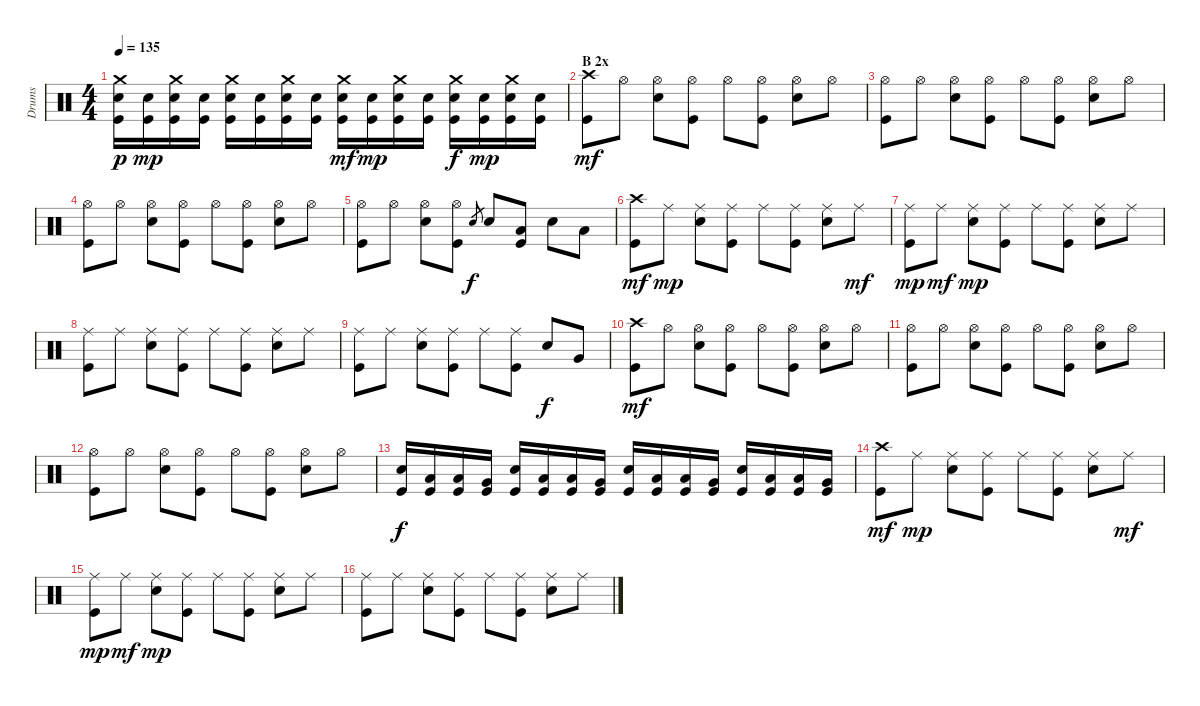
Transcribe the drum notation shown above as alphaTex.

\track ("Drums" "Drums") {instrument percussion}
\staff {score}
\articulation defaults
\ts (4 4)
\tempo 135
\clef neutral
\ks c
("Crash medium (hit)" "Electric Snare (hit)" "Kick (hit)").16{dy p} ("Electric Snare (hit)" "Kick (hit)").16{dy mp} ("Crash medium (hit)" "Electric Snare (hit)" "Kick (hit)").16 ("Electric Snare (hit)" "Kick (hit)").16 ("Crash medium (hit)" "Electric Snare (hit)" "Kick (hit)").16 ("Electric Snare (hit)" "Kick (hit)").16 ("Crash medium (hit)" "Electric Snare (hit)" "Kick (hit)").16 ("Electric Snare (hit)" "Kick (hit)").16 ("Crash medium (hit)" "Electric Snare (hit)" "Kick (hit)").16{dy mf} ("Electric Snare (hit)" "Kick (hit)").16{dy mp} ("Crash medium (hit)" "Electric Snare (hit)" "Kick (hit)").16 ("Electric Snare (hit)" "Kick (hit)").16 ("Crash medium (hit)" "Electric Snare (hit)" "Kick (hit)").16{dy f} ("Electric Snare (hit)" "Kick (hit)").16{dy mp} ("Crash medium (hit)" "Electric Snare (hit)" "Kick (hit)").16 ("Electric Snare (hit)" "Kick (hit)").16 |
\section ("" "B 2x")
("Crash high (hit)" "Kick (hit)").8{dy mf} "Hi-Hat (open)".8 ("Hi-Hat (open)" "Electric Snare (hit)").8 ("Hi-Hat (open)" "Kick (hit)").8 "Hi-Hat (open)".8 ("Hi-Hat (open)" "Kick (hit)").8 ("Hi-Hat (open)" "Electric Snare (hit)").8 "Hi-Hat (open)".8 |
("Hi-Hat (open)" "Kick (hit)").8 "Hi-Hat (open)".8 ("Hi-Hat (open)" "Electric Snare (hit)").8 ("Hi-Hat (open)" "Kick (hit)").8 "Hi-Hat (open)".8 ("Hi-Hat (open)" "Kick (hit)").8 ("Hi-Hat (open)" "Electric Snare (hit)").8 "Hi-Hat (open)".8 |
("Hi-Hat (open)" "Kick (hit)").8 "Hi-Hat (open)".8 ("Hi-Hat (open)" "Electric Snare (hit)").8 ("Hi-Hat (open)" "Kick (hit)").8 "Hi-Hat (open)".8 ("Hi-Hat (open)" "Kick (hit)").8 ("Hi-Hat (open)" "Electric Snare (hit)").8 "Hi-Hat (open)".8 |
("Hi-Hat (open)" "Kick (hit)").8 "Hi-Hat (open)".8 ("Hi-Hat (open)" "Electric Snare (hit)").8 ("Hi-Hat (open)" "Kick (hit)").8 "Electric Snare (hit)".8{gr dy f} "Electric Snare (hit)".8 ("Low Tom (hit)" "Kick (hit)").8 "Electric Snare (hit)".8 "Low Tom (hit)".8 |
("Crash high (hit)" "Kick (hit)").8{dy mf} "Ride (middle)".8{dy mp} ("Ride (middle)" "Electric Snare (hit)").8 ("Ride (middle)" "Kick (hit)").8 "Ride (middle)".8 ("Ride (middle)" "Kick (hit)").8 ("Ride (middle)" "Electric Snare (hit)").8 "Ride (middle)".8{dy mf} |
("Ride (middle)" "Kick (hit)").8{dy mp} "Ride (middle)".8{dy mf} ("Ride (middle)" "Electric Snare (hit)").8{dy mp} ("Ride (middle)" "Kick (hit)").8 "Ride (middle)".8 ("Ride (middle)" "Kick (hit)").8 ("Ride (middle)" "Electric Snare (hit)").8 "Ride (middle)".8 |
("Ride (middle)" "Kick (hit)").8 "Ride (middle)".8 ("Ride (middle)" "Electric Snare (hit)").8 ("Ride (middle)" "Kick (hit)").8 "Ride (middle)".8 ("Ride (middle)" "Kick (hit)").8 ("Ride (middle)" "Electric Snare (hit)").8 "Ride (middle)".8 |
("Ride (middle)" "Kick (hit)").8 "Ride (middle)".8 ("Ride (middle)" "Electric Snare (hit)").8 ("Ride (middle)" "Kick (hit)").8 "Ride (middle)".8 ("Ride (middle)" "Kick (hit)").8 "Electric Snare (hit)".8{dy f} "Very Low Tom (hit)".8 |
("Crash high (hit)" "Kick (hit)").8{dy mf} "Hi-Hat (open)".8 ("Hi-Hat (open)" "Electric Snare (hit)").8 ("Hi-Hat (open)" "Kick (hit)").8 "Hi-Hat (open)".8 ("Hi-Hat (open)" "Kick (hit)").8 ("Hi-Hat (open)" "Electric Snare (hit)").8 "Hi-Hat (open)".8 |
("Hi-Hat (open)" "Kick (hit)").8 "Hi-Hat (open)".8 ("Hi-Hat (open)" "Electric Snare (hit)").8 ("Hi-Hat (open)" "Kick (hit)").8 "Hi-Hat (open)".8 ("Hi-Hat (open)" "Kick (hit)").8 ("Hi-Hat (open)" "Electric Snare (hit)").8 "Hi-Hat (open)".8 |
("Hi-Hat (open)" "Kick (hit)").8 "Hi-Hat (open)".8 ("Hi-Hat (open)" "Electric Snare (hit)").8 ("Hi-Hat (open)" "Kick (hit)").8 "Hi-Hat (open)".8 ("Hi-Hat (open)" "Kick (hit)").8 ("Hi-Hat (open)" "Electric Snare (hit)").8 "Hi-Hat (open)".8 |
("Electric Snare (hit)" "Kick (hit)").16{dy f} ("Low Tom (hit)" "Kick (hit)").16 ("Low Tom (hit)" "Kick (hit)").16 ("Very Low Tom (hit)" "Kick (hit)").16 ("Electric Snare (hit)" "Kick (hit)").16 ("Low Tom (hit)" "Kick (hit)").16 ("Low Tom (hit)" "Kick (hit)").16 ("Very Low Tom (hit)" "Kick (hit)").16 ("Electric Snare (hit)" "Kick (hit)").16 ("Low Tom (hit)" "Kick (hit)").16 ("Low Tom (hit)" "Kick (hit)").16 ("Very Low Tom (hit)" "Kick (hit)").16 ("Electric Snare (hit)" "Kick (hit)").16 ("Low Tom (hit)" "Kick (hit)").16 ("Low Tom (hit)" "Kick (hit)").16 ("Very Low Tom (hit)" "Kick (hit)").16 |
("Crash high (hit)" "Kick (hit)").8{dy mf} "Ride (middle)".8{dy mp} ("Ride (middle)" "Electric Snare (hit)").8 ("Ride (middle)" "Kick (hit)").8 "Ride (middle)".8 ("Ride (middle)" "Kick (hit)").8 ("Ride (middle)" "Electric Snare (hit)").8 "Ride (middle)".8{dy mf} |
("Ride (middle)" "Kick (hit)").8{dy mp} "Ride (middle)".8{dy mf} ("Ride (middle)" "Electric Snare (hit)").8{dy mp} ("Ride (middle)" "Kick (hit)").8 "Ride (middle)".8 ("Ride (middle)" "Kick (hit)").8 ("Ride (middle)" "Electric Snare (hit)").8 "Ride (middle)".8 |
("Ride (middle)" "Kick (hit)").8 "Ride (middle)".8 ("Ride (middle)" "Electric Snare (hit)").8 ("Ride (middle)" "Kick (hit)").8 "Ride (middle)".8 ("Ride (middle)" "Kick (hit)").8 ("Ride (middle)" "Electric Snare (hit)").8 "Ride (middle)".8
